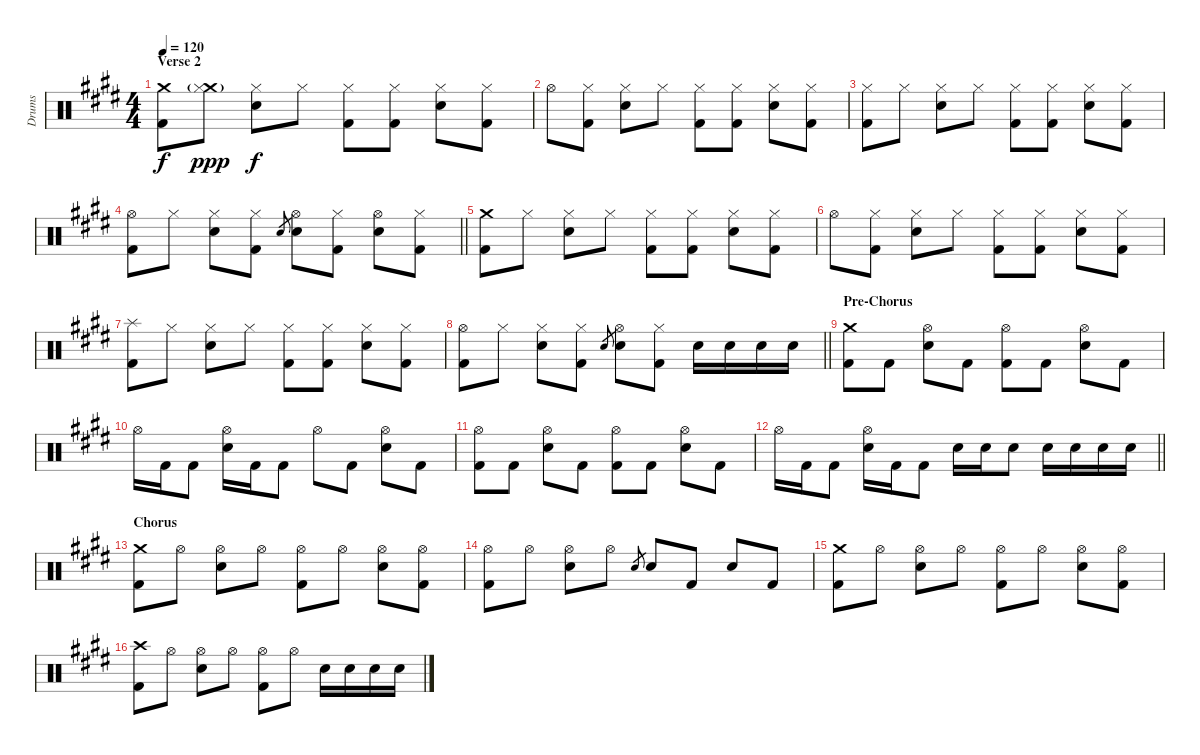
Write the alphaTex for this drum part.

\track ("Drums" "Drums") {instrument percussion}
\staff {score}
\articulation defaults
\ts (4 4)
\section ("" "Verse 2")
\tempo 120
\clef neutral
\ks e
("Crash medium (hit)" "Kick (hit) 2").8{dy f} ("Crash medium (hit)"{g} "Hi-Hat (closed)").8{dy ppp} ("Hi-Hat (closed)" "Electric Snare (hit)").8{dy f} "Hi-Hat (closed)".8 ("Hi-Hat (closed)" "Kick (hit) 2").8 ("Hi-Hat (closed)" "Kick (hit) 2").8 ("Hi-Hat (closed)" "Electric Snare (hit)").8 ("Hi-Hat (closed)" "Kick (hit) 2").8 |
"Hi-Hat (open)".8 ("Hi-Hat (closed)" "Kick (hit) 2").8 ("Hi-Hat (closed)" "Electric Snare (hit)").8 "Hi-Hat (closed)".8 ("Hi-Hat (closed)" "Kick (hit) 2").8 ("Hi-Hat (closed)" "Kick (hit) 2").8 ("Hi-Hat (closed)" "Electric Snare (hit)").8 ("Hi-Hat (closed)" "Kick (hit) 2").8 |
("Hi-Hat (closed)" "Kick (hit) 2").8 "Hi-Hat (closed)".8 ("Hi-Hat (closed)" "Electric Snare (hit)").8 "Hi-Hat (closed)".8 ("Hi-Hat (closed)" "Kick (hit) 2").8 ("Hi-Hat (closed)" "Kick (hit) 2").8 ("Hi-Hat (closed)" "Electric Snare (hit)").8 ("Hi-Hat (closed)" "Kick (hit) 2").8 |
\barLineRight lightlight
("Hi-Hat (open)" "Kick (hit) 2").8 "Hi-Hat (closed)".8 ("Hi-Hat (closed)" "Electric Snare (hit)").8 ("Hi-Hat (closed)" "Kick (hit) 2").8 "Electric Snare (hit)".8{gr} ("Hi-Hat (open)" "Electric Snare (hit)").8 ("Hi-Hat (closed)" "Kick (hit) 2").8 ("Hi-Hat (open)" "Electric Snare (hit)").8 ("Hi-Hat (closed)" "Kick (hit) 2").8 |
("Crash medium (hit)" "Kick (hit) 2").8 "Hi-Hat (closed)".8 ("Hi-Hat (closed)" "Electric Snare (hit)").8 "Hi-Hat (closed)".8 ("Hi-Hat (closed)" "Kick (hit) 2").8 ("Hi-Hat (closed)" "Kick (hit) 2").8 ("Hi-Hat (closed)" "Electric Snare (hit)").8 ("Hi-Hat (closed)" "Kick (hit) 2").8 |
"Hi-Hat (open)".8 ("Hi-Hat (closed)" "Kick (hit) 2").8 ("Hi-Hat (closed)" "Electric Snare (hit)").8 "Hi-Hat (closed)".8 ("Hi-Hat (closed)" "Kick (hit) 2").8 ("Hi-Hat (closed)" "Kick (hit) 2").8 ("Hi-Hat (closed)" "Electric Snare (hit)").8 ("Hi-Hat (closed)" "Kick (hit) 2").8 |
("Splash (hit)" "Kick (hit) 2").8 "Hi-Hat (closed)".8 ("Hi-Hat (closed)" "Electric Snare (hit)").8 "Hi-Hat (closed)".8 ("Hi-Hat (closed)" "Kick (hit) 2").8 ("Hi-Hat (closed)" "Kick (hit) 2").8 ("Hi-Hat (closed)" "Electric Snare (hit)").8 ("Hi-Hat (closed)" "Kick (hit) 2").8 |
\barLineRight lightlight
("Hi-Hat (open)" "Kick (hit) 2").8 "Hi-Hat (closed)".8 ("Hi-Hat (closed)" "Electric Snare (hit)").8 ("Hi-Hat (closed)" "Kick (hit) 2").8 "Electric Snare (hit)".8{gr} ("Hi-Hat (open)" "Electric Snare (hit)").8 ("Hi-Hat (closed)" "Kick (hit) 2").8 "Electric Snare (hit)".16 "Electric Snare (hit)".16 "Electric Snare (hit)".16 "Electric Snare (hit)".16 |
\section ("" "Pre-Chorus")
("Crash medium (hit)" "Kick (hit) 2").8 "Kick (hit) 2".8 ("Hi-Hat (open)" "Electric Snare (hit)").8 "Kick (hit) 2".8 ("Hi-Hat (open)" "Kick (hit) 2").8 "Kick (hit) 2".8 ("Hi-Hat (open)" "Electric Snare (hit)").8 "Kick (hit) 2".8 |
"Hi-Hat (open)".16 "Kick (hit) 2".16 "Kick (hit) 2".8 ("Hi-Hat (open)" "Electric Snare (hit)").16 "Kick (hit) 2".16 "Kick (hit) 2".8 "Hi-Hat (open)".8 "Kick (hit) 2".8 ("Hi-Hat (open)" "Electric Snare (hit)").8 "Kick (hit) 2".8 |
("Hi-Hat (open)" "Kick (hit) 2").8 "Kick (hit) 2".8 ("Hi-Hat (open)" "Electric Snare (hit)").8 "Kick (hit) 2".8 ("Hi-Hat (open)" "Kick (hit) 2").8 "Kick (hit) 2".8 ("Hi-Hat (open)" "Electric Snare (hit)").8 "Kick (hit) 2".8 |
\barLineRight lightlight "Hi-Hat (open)".16 "Kick (hit) 2".16 "Kick (hit) 2".8
("Hi-Hat (open)" "Electric Snare (hit)").16 "Kick (hit) 2".16 "Kick (hit) 2".8 "Electric Snare (hit)".16 "Electric Snare (hit)".16 "Electric Snare (hit)".8 "Electric Snare (hit)".16 "Electric Snare (hit)".16 "Electric Snare (hit)".16 "Electric Snare (hit)".16 |
\section ("" "Chorus")
("Crash medium (hit)" "Kick (hit) 2").8 "Hi-Hat (open)".8 ("Hi-Hat (open)" "Electric Snare (hit)").8 "Hi-Hat (open)".8 ("Hi-Hat (open)" "Kick (hit) 2").8 "Hi-Hat (open)".8 ("Hi-Hat (open)" "Electric Snare (hit)").8 ("Hi-Hat (open)" "Kick (hit) 2").8 |
("Hi-Hat (open)" "Kick (hit) 2").8 "Hi-Hat (open)".8 ("Hi-Hat (open)" "Electric Snare (hit)").8 "Hi-Hat (open)".8 "Electric Snare (hit)".8{gr} "Electric Snare (hit)".8 "Kick (hit) 2".8 "Electric Snare (hit)".8 "Kick (hit) 2".8 |
("Crash medium (hit)" "Kick (hit) 2").8 "Hi-Hat (open)".8 ("Hi-Hat (open)" "Electric Snare (hit)").8 "Hi-Hat (open)".8 ("Hi-Hat (open)" "Kick (hit) 2").8 "Hi-Hat (open)".8 ("Hi-Hat (open)" "Electric Snare (hit)").8 ("Hi-Hat (open)" "Kick (hit) 2").8 |
("Crash high (hit)" "Kick (hit) 2").8 "Hi-Hat (open)".8 ("Hi-Hat (open)" "Electric Snare (hit)").8 "Hi-Hat (open)".8 ("Hi-Hat (open)" "Kick (hit) 2").8 "Hi-Hat (open)".8 "Electric Snare (hit)".16 "Electric Snare (hit)".16 "Electric Snare (hit)".16 "Electric Snare (hit)".16
